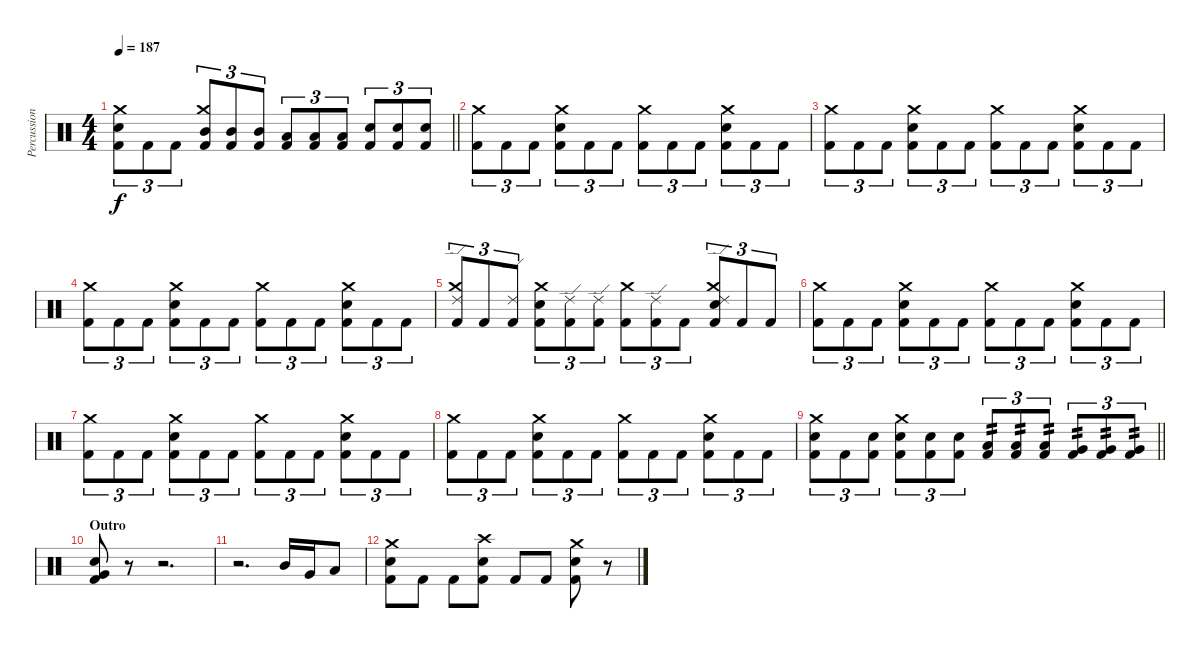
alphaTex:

\track ("Percussion" "Percussion") {instrument percussion}
\staff {score}
\articulation defaults
\ts (4 4)
\tempo 187
\clef neutral
\barLineRight lightlight
\ks c
("Kick (hit) 2" "Snare (hit) 2" "Crash medium (hit)").8{tu (3 2) dy f} "Kick (hit) 2".8{tu (3 2)} "Kick (hit) 2".8{tu (3 2)} ("Kick (hit) 2" "Mid Tom (hit)" "Crash medium (hit)").8{tu (3 2)} ("Kick (hit) 2" "Mid Tom (hit)").8{tu (3 2)} ("Kick (hit) 2" "Mid Tom (hit)").8{tu (3 2)} ("Kick (hit) 2" "Low Tom (hit)").8{tu (3 2)} ("Kick (hit) 2" "Low Tom (hit)").8{tu (3 2)} ("Kick (hit) 2" "Low Tom (hit)").8{tu (3 2)} ("Kick (hit) 2" "Snare (hit) 2").8{tu (3 2)} ("Kick (hit) 2" "Snare (hit) 2").8{tu (3 2)} ("Kick (hit) 2" "Snare (hit) 2").8{tu (3 2)} |
\section ("" "")
("Kick (hit) 2" "Crash medium (hit)").8{tu (3 2)} "Kick (hit) 2".8{tu (3 2)} "Kick (hit) 2".8{tu (3 2)} ("Kick (hit) 2" "Snare (hit) 2" "Crash medium (hit)").8{tu (3 2)} "Kick (hit) 2".8{tu (3 2)} "Kick (hit) 2".8{tu (3 2)} ("Kick (hit) 2" "Crash medium (hit)").8{tu (3 2)} "Kick (hit) 2".8{tu (3 2)} "Kick (hit) 2".8{tu (3 2)} ("Kick (hit) 2" "Snare (hit) 2" "Crash medium (hit)").8{tu (3 2)} "Kick (hit) 2".8{tu (3 2)} "Kick (hit) 2".8{tu (3 2)} |
("Kick (hit) 2" "Crash medium (hit)").8{tu (3 2)} "Kick (hit) 2".8{tu (3 2)} "Kick (hit) 2".8{tu (3 2)} ("Kick (hit) 2" "Snare (hit) 2" "Crash medium (hit)").8{tu (3 2)} "Kick (hit) 2".8{tu (3 2)} "Kick (hit) 2".8{tu (3 2)} ("Kick (hit) 2" "Crash medium (hit)").8{tu (3 2)} "Kick (hit) 2".8{tu (3 2)} "Kick (hit) 2".8{tu (3 2)} ("Kick (hit) 2" "Snare (hit) 2" "Crash medium (hit)").8{tu (3 2)} "Kick (hit) 2".8{tu (3 2)} "Kick (hit) 2".8{tu (3 2)} |
("Kick (hit) 2" "Crash medium (hit)").8{tu (3 2)} "Kick (hit) 2".8{tu (3 2)} "Kick (hit) 2".8{tu (3 2)} ("Kick (hit) 2" "Snare (hit) 2" "Crash medium (hit)").8{tu (3 2)} "Kick (hit) 2".8{tu (3 2)} "Kick (hit) 2".8{tu (3 2)} ("Kick (hit) 2" "Crash medium (hit)").8{tu (3 2)} "Kick (hit) 2".8{tu (3 2)} "Kick (hit) 2".8{tu (3 2)} ("Kick (hit) 2" "Snare (hit) 2" "Crash medium (hit)").8{tu (3 2)} "Kick (hit) 2".8{tu (3 2)} "Kick (hit) 2".8{tu (3 2)} |
("Kick (hit) 2" "Crash medium (hit)" "Ride (edge) 2").8{tu (3 2)} "Kick (hit) 2".8{tu (3 2)} ("Kick (hit) 2" "Ride (edge) 2").8{tu (3 2)} ("Kick (hit) 2" "Snare (hit) 2" "Crash medium (hit)").8{tu (3 2)} ("Kick (hit) 2" "Ride (edge) 2").8{tu (3 2)} ("Kick (hit) 2" "Ride (edge) 2").8{tu (3 2)} ("Kick (hit) 2" "Crash medium (hit)").8{tu (3 2)} ("Kick (hit) 2" "Ride (edge) 2").8{tu (3 2)} "Kick (hit) 2".8{tu (3 2)} ("Kick (hit) 2" "Snare (hit) 2" "Crash medium (hit)" "Ride (edge) 2").8{tu (3 2)} "Kick (hit) 2".8{tu (3 2)} "Kick (hit) 2".8{tu (3 2)} |
("Kick (hit) 2" "Crash medium (hit)").8{tu (3 2)} "Kick (hit) 2".8{tu (3 2)} "Kick (hit) 2".8{tu (3 2)} ("Kick (hit) 2" "Snare (hit) 2" "Crash medium (hit)").8{tu (3 2)} "Kick (hit) 2".8{tu (3 2)} "Kick (hit) 2".8{tu (3 2)} ("Kick (hit) 2" "Crash medium (hit)").8{tu (3 2)} "Kick (hit) 2".8{tu (3 2)} "Kick (hit) 2".8{tu (3 2)} ("Kick (hit) 2" "Snare (hit) 2" "Crash medium (hit)").8{tu (3 2)} "Kick (hit) 2".8{tu (3 2)} "Kick (hit) 2".8{tu (3 2)} |
("Kick (hit) 2" "Crash medium (hit)").8{tu (3 2)} "Kick (hit) 2".8{tu (3 2)} "Kick (hit) 2".8{tu (3 2)} ("Kick (hit) 2" "Snare (hit) 2" "Crash medium (hit)").8{tu (3 2)} "Kick (hit) 2".8{tu (3 2)} "Kick (hit) 2".8{tu (3 2)} ("Kick (hit) 2" "Crash medium (hit)").8{tu (3 2)} "Kick (hit) 2".8{tu (3 2)} "Kick (hit) 2".8{tu (3 2)} ("Kick (hit) 2" "Snare (hit) 2" "Crash medium (hit)").8{tu (3 2)} "Kick (hit) 2".8{tu (3 2)} "Kick (hit) 2".8{tu (3 2)} |
("Kick (hit) 2" "Crash medium (hit)").8{tu (3 2)} "Kick (hit) 2".8{tu (3 2)} "Kick (hit) 2".8{tu (3 2)} ("Kick (hit) 2" "Snare (hit) 2" "Crash medium (hit)").8{tu (3 2)} "Kick (hit) 2".8{tu (3 2)} "Kick (hit) 2".8{tu (3 2)} ("Kick (hit) 2" "Crash medium (hit)").8{tu (3 2)} "Kick (hit) 2".8{tu (3 2)} "Kick (hit) 2".8{tu (3 2)} ("Kick (hit) 2" "Snare (hit) 2" "Crash medium (hit)").8{tu (3 2)} "Kick (hit) 2".8{tu (3 2)} "Kick (hit) 2".8{tu (3 2)} |
\barLineRight lightlight
("Kick (hit) 2" "Snare (hit) 2" "Crash medium (hit)").8{tu (3 2)} "Kick (hit) 2".8{tu (3 2)} ("Kick (hit) 2" "Snare (hit) 2").8{tu (3 2)} ("Kick (hit) 2" "Snare (hit) 2" "Crash medium (hit)").8{tu (3 2)} ("Kick (hit) 2" "Snare (hit) 2").8{tu (3 2)} ("Kick (hit) 2" "Snare (hit) 2").8{tu (3 2)} ("Kick (hit) 2" "Low Tom (hit)").8{tu (3 2) tp 2} ("Kick (hit) 2" "Low Tom (hit)").8{tu (3 2) tp 2} ("Kick (hit) 2" "Low Tom (hit)").8{tu (3 2) tp 2} ("Kick (hit) 2" "Very Low Tom (hit)").8{tu (3 2) tp 2} ("Kick (hit) 2" "Very Low Tom (hit)").8{tu (3 2) tp 2} ("Kick (hit) 2" "Very Low Tom (hit)").8{tu (3 2) tp 2} |
\section ("" "Outro")
("Kick (hit) 2" "Snare (hit) 2" "Very Low Tom (hit)").8 r.8 r.2{d} |
r.2{d} "Mid Tom (hit)".16 "Very Low Tom (hit)".16 "Low Floor Tom (hit)".8 |
("Kick (hit) 2" "Snare (hit) 2" "Crash medium (hit)").8 "Kick (hit) 2".8 "Kick (hit) 2".8 ("Kick (hit) 2" "Snare (hit) 2" "Crash high (hit)").8 "Kick (hit) 2".8 "Kick (hit) 2".8 ("Kick (hit) 2" "Snare (hit) 2" "Crash medium (hit)").8 r.8
